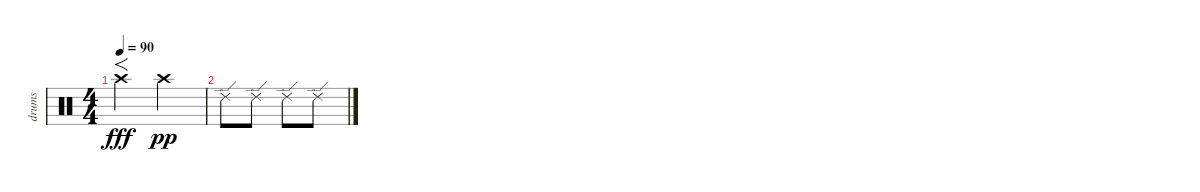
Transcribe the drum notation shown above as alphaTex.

\track ("drums" "drums") {instrument percussion}
\staff {score}
\articulation defaults
\ts (4 4)
\tempo 90
\clef neutral
\ks c "Crash high (hit)".2{f dy fff} "Crash high (hit)".2{dy pp}
|
"Ride (edge) 2".8 "Ride (edge) 2".8 "Ride (edge) 2".8 "Ride (edge) 2".8
